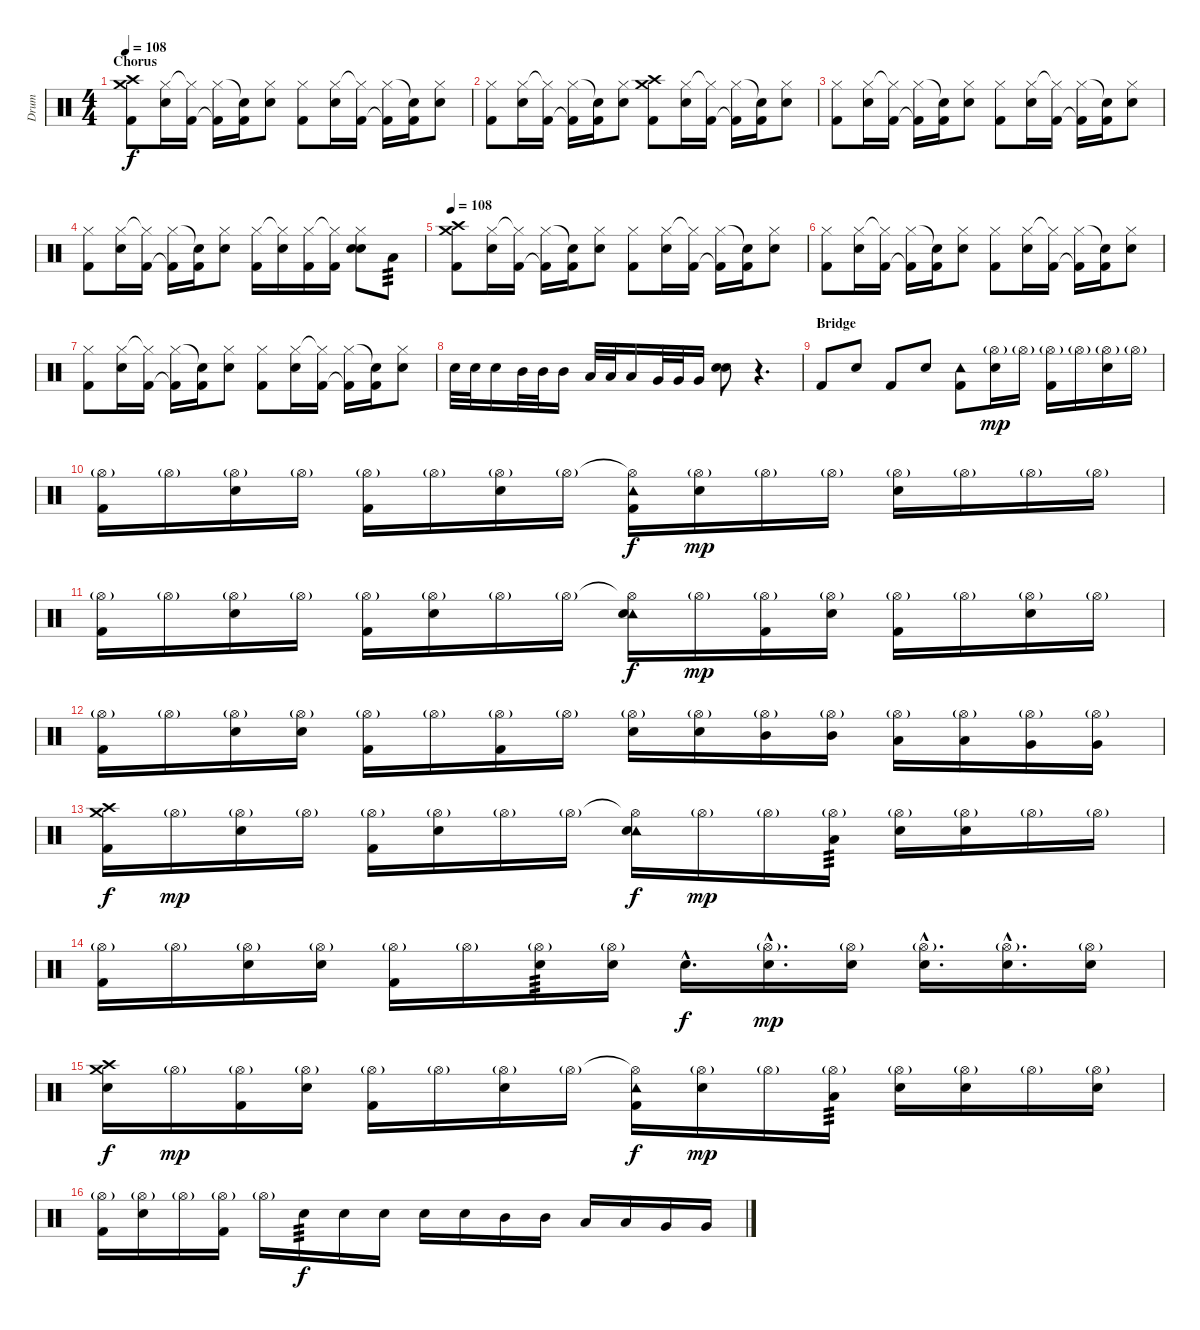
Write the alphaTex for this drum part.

\track ("Drum" "Drum") {instrument percussion}
\staff {score}
\articulation defaults
\ts (4 4)
\section ("" "Chorus")
\tempo 108
\clef neutral
\ks c
("Crash medium (hit)" "Crash high (hit)" "Kick (hit) 2").8{dy f} ("Hi-Hat (closed)" "Electric Snare (hit)").16 ("Hi-Hat (closed)"{t} "Kick (hit) 2").16 ("Hi-Hat (closed)" "Kick (hit) 2"{t}).16 ("Snare (hit)"{t} "Kick (hit) 2").16 ("Hi-Hat (closed)" "Electric Snare (hit)").8 ("Hi-Hat (closed)" "Kick (hit) 2").8 ("Hi-Hat (closed)" "Electric Snare (hit)").16 ("Hi-Hat (closed)"{t} "Kick (hit) 2").16 ("Hi-Hat (closed)" "Kick (hit) 2"{t}).16 ("Snare (hit)"{t} "Kick (hit) 2").16 ("Hi-Hat (closed)" "Electric Snare (hit)").8 |
("Hi-Hat (closed)" "Kick (hit) 2").8 ("Hi-Hat (closed)" "Electric Snare (hit)").16 ("Hi-Hat (closed)"{t} "Kick (hit) 2").16 ("Hi-Hat (closed)" "Kick (hit) 2"{t}).16 ("Snare (hit)"{t} "Kick (hit) 2").16 ("Hi-Hat (closed)" "Electric Snare (hit)").8 ("Crash medium (hit)" "Crash high (hit)" "Kick (hit) 2").8 ("Hi-Hat (closed)" "Electric Snare (hit)").16 ("Hi-Hat (closed)"{t} "Kick (hit) 2").16 ("Hi-Hat (closed)" "Kick (hit) 2"{t}).16 ("Snare (hit)"{t} "Kick (hit) 2").16 ("Hi-Hat (closed)" "Electric Snare (hit)").8 |
("Hi-Hat (closed)" "Kick (hit) 2").8 ("Hi-Hat (closed)" "Electric Snare (hit)").16 ("Hi-Hat (closed)"{t} "Kick (hit) 2").16 ("Hi-Hat (closed)" "Kick (hit) 2"{t}).16 ("Snare (hit)"{t} "Kick (hit) 2").16 ("Hi-Hat (closed)" "Electric Snare (hit)").8 ("Hi-Hat (closed)" "Kick (hit) 2").8 ("Hi-Hat (closed)" "Electric Snare (hit)").16 ("Hi-Hat (closed)"{t} "Kick (hit) 2").16 ("Hi-Hat (closed)" "Kick (hit) 2"{t}).16 ("Snare (hit)"{t} "Kick (hit) 2").16 ("Hi-Hat (closed)" "Electric Snare (hit)").8 |
("Hi-Hat (closed)" "Kick (hit) 2").8 ("Hi-Hat (closed)" "Electric Snare (hit)").16 ("Hi-Hat (closed)"{t} "Kick (hit) 2").16 ("Hi-Hat (closed)" "Kick (hit) 2"{t}).16 ("Snare (hit)"{t} "Kick (hit) 2").16 ("Hi-Hat (closed)" "Electric Snare (hit)").8 ("Hi-Hat (closed)" "Kick (hit) 2").16 ("Hi-Hat (closed)"{t} "Electric Snare (hit)").16 ("Hi-Hat (closed)" "Kick (hit) 2").16 ("Hi-Hat (closed)"{t} "Kick (hit) 2").16 ("Hi-Hat (closed)" "Electric Snare (hit)" "Electric Snare (hit)").8 "Low Tom (hit)".8{tp 3} |
\tempo 108
("Crash medium (hit)" "Crash high (hit)" "Kick (hit) 2").8 ("Hi-Hat (closed)" "Electric Snare (hit)").16 ("Hi-Hat (closed)"{t} "Kick (hit) 2").16 ("Hi-Hat (closed)" "Kick (hit) 2"{t}).16 ("Snare (hit)"{t} "Kick (hit) 2").16 ("Hi-Hat (closed)" "Electric Snare (hit)").8 ("Hi-Hat (closed)" "Kick (hit) 2").8 ("Hi-Hat (closed)" "Electric Snare (hit)").16 ("Hi-Hat (closed)"{t} "Kick (hit) 2").16 ("Hi-Hat (closed)" "Kick (hit) 2"{t}).16 ("Snare (hit)"{t} "Kick (hit) 2").16 ("Hi-Hat (closed)" "Electric Snare (hit)").8 |
("Hi-Hat (closed)" "Kick (hit) 2").8 ("Hi-Hat (closed)" "Electric Snare (hit)").16 ("Hi-Hat (closed)"{t} "Kick (hit) 2").16 ("Hi-Hat (closed)" "Kick (hit) 2"{t}).16 ("Snare (hit)"{t} "Kick (hit) 2").16 ("Hi-Hat (closed)" "Electric Snare (hit)").8 ("Hi-Hat (closed)" "Kick (hit) 2").8 ("Hi-Hat (closed)" "Electric Snare (hit)").16 ("Hi-Hat (closed)"{t} "Kick (hit) 2").16 ("Hi-Hat (closed)" "Kick (hit) 2"{t}).16 ("Snare (hit)"{t} "Kick (hit) 2").16 ("Hi-Hat (closed)" "Electric Snare (hit)").8 |
("Hi-Hat (closed)" "Kick (hit) 2").8 ("Hi-Hat (closed)" "Electric Snare (hit)").16 ("Hi-Hat (closed)"{t} "Kick (hit) 2").16 ("Hi-Hat (closed)" "Kick (hit) 2"{t}).16 ("Snare (hit)"{t} "Kick (hit) 2").16 ("Hi-Hat (closed)" "Electric Snare (hit)").8 ("Hi-Hat (closed)" "Kick (hit) 2").8 ("Hi-Hat (closed)" "Electric Snare (hit)").16 ("Hi-Hat (closed)"{t} "Kick (hit) 2").16 ("Hi-Hat (closed)" "Kick (hit) 2"{t}).16 ("Snare (hit)"{t} "Kick (hit) 2").16 ("Hi-Hat (closed)" "Electric Snare (hit)").8 |
"Electric Snare (hit)".32 "Electric Snare (hit)".32 "Electric Snare (hit)".16 "Mid Tom (hit)".32 "Mid Tom (hit)".32 "Mid Tom (hit)".16 "Low Tom (hit)".32 "Low Tom (hit)".32 "Low Tom (hit)".16 "Very Low Tom (hit)".32 "Very Low Tom (hit)".32 "Very Low Tom (hit)".16 ("Electric Snare (hit)" "Electric Snare (hit)").8 r.4{d} |
\section ("" "Bridge")
"Kick (hit) 2".8 "Electric Snare (hit)".8 "Kick (hit) 2".8 "Electric Snare (hit)".8 ("Tambourine (hit)" "Kick (hit) 2").8 ("Hi-Hat (open)"{g} "Electric Snare (hit)").16{dy mp} "Hi-Hat (open)"{g}.16 ("Hi-Hat (open)"{g} "Kick (hit) 2").16 "Hi-Hat (open)"{g}.16 ("Hi-Hat (open)"{g} "Electric Snare (hit)").16 "Hi-Hat (open)"{g}.16 |
("Hi-Hat (open)"{g} "Kick (hit) 2").16 "Hi-Hat (open)"{g}.16 ("Hi-Hat (open)"{g} "Electric Snare (hit)").16 "Hi-Hat (open)"{g}.16 ("Hi-Hat (open)"{g} "Kick (hit) 2").16 "Hi-Hat (open)"{g}.16 ("Hi-Hat (open)"{g} "Electric Snare (hit)").16 "Hi-Hat (open)"{g}.16 ("Hi-Hat (open)"{t} "Tambourine (hit)" "Kick (hit) 2").16{dy f} ("Hi-Hat (open)"{g} "Electric Snare (hit)").16{dy mp} "Hi-Hat (open)"{g}.16 "Hi-Hat (open)"{g}.16 ("Hi-Hat (open)"{g} "Electric Snare (hit)").16 "Hi-Hat (open)"{g}.16 "Hi-Hat (open)"{g}.16 "Hi-Hat (open)"{g}.16 |
("Hi-Hat (open)"{g} "Kick (hit) 2").16 "Hi-Hat (open)"{g}.16 ("Hi-Hat (open)"{g} "Electric Snare (hit)").16 "Hi-Hat (open)"{g}.16 ("Hi-Hat (open)"{g} "Kick (hit) 2").16 ("Hi-Hat (open)"{g} "Electric Snare (hit)").16 "Hi-Hat (open)"{g}.16 "Hi-Hat (open)"{g}.16 ("Hi-Hat (open)"{t} "Tambourine (hit)" "Electric Snare (hit)").16{dy f} "Hi-Hat (open)"{g}.16{dy mp} ("Hi-Hat (open)"{g} "Kick (hit) 2").16 ("Hi-Hat (open)"{g} "Electric Snare (hit)").16 ("Hi-Hat (open)"{g} "Kick (hit) 2").16 "Hi-Hat (open)"{g}.16 ("Hi-Hat (open)"{g} "Electric Snare (hit)").16 "Hi-Hat (open)"{g}.16 |
("Hi-Hat (open)"{g} "Kick (hit) 2").16 "Hi-Hat (open)"{g}.16 ("Hi-Hat (open)"{g} "Electric Snare (hit)").16 ("Hi-Hat (open)"{g} "Electric Snare (hit)").16 ("Hi-Hat (open)"{g} "Kick (hit) 2").16 "Hi-Hat (open)"{g}.16 ("Hi-Hat (open)"{g} "Kick (hit) 2").16 "Hi-Hat (open)"{g}.16 ("Hi-Hat (open)"{g} "Electric Snare (hit)").16 ("Hi-Hat (open)"{g} "Electric Snare (hit)").16 ("Hi-Hat (open)"{g} "Mid Tom (hit)").16 ("Hi-Hat (open)"{g} "Mid Tom (hit)").16 ("Hi-Hat (open)"{g} "Low Tom (hit)").16 ("Hi-Hat (open)"{g} "Low Tom (hit)").16 ("Hi-Hat (open)"{g} "Very Low Tom (hit)").16 ("Hi-Hat (open)"{g} "Very Low Tom (hit)").16 |
("Crash high (hit)" "Crash medium (hit)" "Kick (hit) 2").16{dy f} "Hi-Hat (open)"{g}.16{dy mp} ("Hi-Hat (open)"{g} "Electric Snare (hit)").16 "Hi-Hat (open)"{g}.16 ("Hi-Hat (open)"{g} "Kick (hit) 2").16 ("Hi-Hat (open)"{g} "Electric Snare (hit)").16 "Hi-Hat (open)"{g}.16 "Hi-Hat (open)"{g}.16 ("Hi-Hat (open)"{t} "Tambourine (hit)" "Electric Snare (hit)").16{dy f} "Hi-Hat (open)"{g}.16{dy mp} "Hi-Hat (open)"{g}.16 ("Hi-Hat (open)"{g} "Low Tom (hit)").16{tp 3} ("Hi-Hat (open)"{g} "Electric Snare (hit)").16 ("Hi-Hat (open)"{g} "Electric Snare (hit)").16 "Hi-Hat (open)"{g}.16 "Hi-Hat (open)"{g}.16 |
("Hi-Hat (open)"{g} "Kick (hit) 2").16 "Hi-Hat (open)"{g}.16 ("Hi-Hat (open)"{g} "Electric Snare (hit)").16 ("Hi-Hat (open)"{g} "Electric Snare (hit)").16 ("Hi-Hat (open)"{g} "Kick (hit) 2").16 "Hi-Hat (open)"{g}.16 ("Hi-Hat (open)"{g} "Electric Snare (hit)").16{tp 3} ("Hi-Hat (open)"{g} "Electric Snare (hit)").16 "Electric Snare (hit)"{hac}.16{d dy f} ("Hi-Hat (open)"{g hac} "Electric Snare (hit)"{hac}).16{d dy mp} ("Hi-Hat (open)"{g} "Electric Snare (hit)").16 ("Hi-Hat (open)"{g hac} "Electric Snare (hit)"{hac}).16{d} ("Hi-Hat (open)"{g hac} "Electric Snare (hit)"{hac}).16{d} ("Hi-Hat (open)"{g} "Electric Snare (hit)").16 |
("Crash medium (hit)" "Crash high (hit)" "Electric Snare (hit)").16{dy f} "Hi-Hat (open)"{g}.16{dy mp} ("Hi-Hat (open)"{g} "Kick (hit) 2").16 ("Hi-Hat (open)"{g} "Electric Snare (hit)").16 ("Hi-Hat (open)"{g} "Kick (hit) 2").16 "Hi-Hat (open)"{g}.16 ("Hi-Hat (open)"{g} "Electric Snare (hit)").16 "Hi-Hat (open)"{g}.16 ("Hi-Hat (open)"{t} "Tambourine (hit)" "Kick (hit) 2").16{dy f} ("Hi-Hat (open)"{g} "Electric Snare (hit)").16{dy mp} "Hi-Hat (open)"{g}.16 ("Hi-Hat (open)"{g} "Low Tom (hit)").16{tp 3} ("Hi-Hat (open)"{g} "Electric Snare (hit)").16 ("Hi-Hat (open)"{g} "Electric Snare (hit)").16 "Hi-Hat (open)"{g}.16 ("Hi-Hat (open)"{g} "Electric Snare (hit)").16 |
("Hi-Hat (open)"{g} "Kick (hit) 2").16 ("Hi-Hat (open)"{g} "Electric Snare (hit)").16 "Hi-Hat (open)"{g}.16 ("Hi-Hat (open)"{g} "Kick (hit) 2").16 "Hi-Hat (open)"{g}.16 "Electric Snare (hit)".16{tp 3 dy f} "Electric Snare (hit)".16 "Electric Snare (hit)".16 "Electric Snare (hit)".16 "Electric Snare (hit)".16 "Mid Tom (hit)".16 "Mid Tom (hit)".16 "Low Tom (hit)".16 "Low Tom (hit)".16 "Very Low Tom (hit)".16 "Very Low Tom (hit)".16
